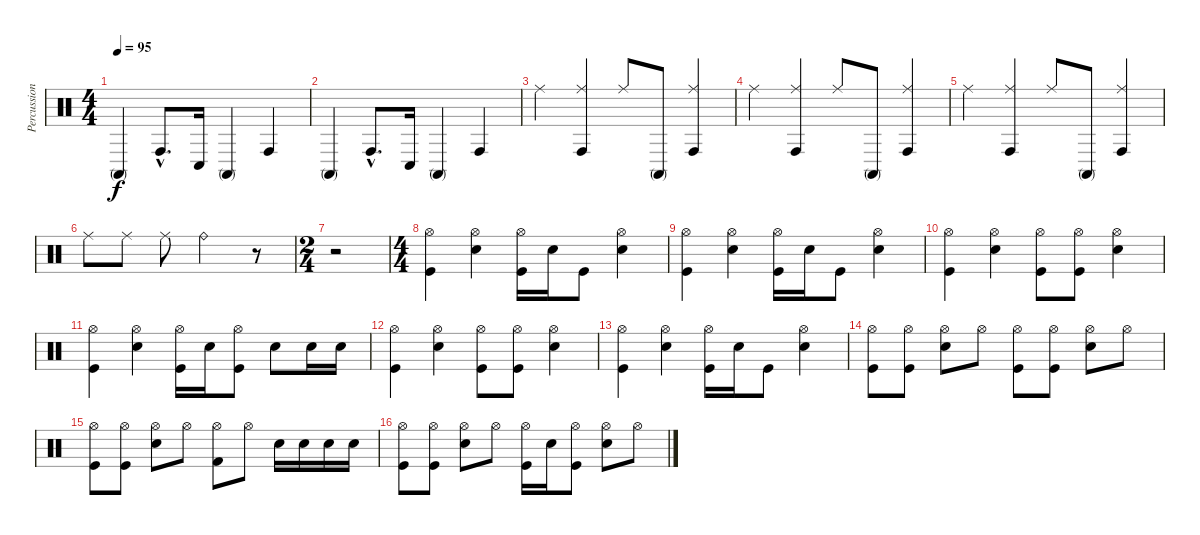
\track ("Percussion" "Percussion") {instrument percussion}
\staff {score}
\articulation defaults
\ts (4 4)
\tempo 95
\clef neutral
\ks c "Conga high (mute)".4{dy f} "Conga high (hit)"{hac}.8{d} "Conga low (hit)".16 "Conga high (mute)".4 "Conga high (hit)".4
|
"Conga high (mute)".4 "Conga high (hit)"{hac}.8{d} "Conga low (hit)".16 "Conga high (mute)".4 "Conga high (hit)".4 |
"Ride (middle)".4 ("Ride (middle)" "Conga high (hit)").4 "Ride (middle)".8 "Conga high (mute)".8 ("Ride (middle)" "Conga high (hit)").4 |
"Ride (middle)".4 ("Ride (middle)" "Conga high (hit)").4 "Ride (middle)".8 "Conga high (mute)".8 ("Ride (middle)" "Conga high (hit)").4 |
"Ride (middle)".4 ("Ride (middle)" "Conga high (hit)").4 "Ride (middle)".8 "Conga high (mute)".8 ("Ride (middle)" "Conga high (hit)").4 |
"Ride (middle)".8 "Ride (middle)".8 "Ride (middle)".8 "Ride (bell)".2 r.8 |
\ts (2 4)
r.2 |
\ts (4 4)
("Hi-Hat (open)" "Kick (hit)").4 ("Hi-Hat (open)" "Snare (hit) 2").4 ("Hi-Hat (open)" "Kick (hit)").16 "Snare (hit) 2".16 "Kick (hit)".8 ("Hi-Hat (open)" "Snare (hit) 2").4 |
("Hi-Hat (open)" "Kick (hit)").4 ("Hi-Hat (open)" "Snare (hit) 2").4 ("Hi-Hat (open)" "Kick (hit)").16 "Snare (hit) 2".16 "Kick (hit)".8 ("Hi-Hat (open)" "Snare (hit) 2").4 |
("Hi-Hat (open)" "Kick (hit)").4 ("Hi-Hat (open)" "Snare (hit) 2").4 ("Hi-Hat (open)" "Kick (hit)").8 ("Hi-Hat (open)" "Kick (hit)").8 ("Hi-Hat (open)" "Snare (hit) 2").4 |
("Hi-Hat (open)" "Kick (hit)").4 ("Hi-Hat (open)" "Snare (hit) 2").4 ("Hi-Hat (open)" "Kick (hit)").16 "Snare (hit) 2".16 ("Hi-Hat (open)" "Kick (hit)").8 "Snare (hit) 2".8 "Snare (hit) 2".16 "Snare (hit) 2".16 |
("Hi-Hat (open)" "Kick (hit)").4 ("Hi-Hat (open)" "Snare (hit) 2").4 ("Hi-Hat (open)" "Kick (hit)").8 ("Hi-Hat (open)" "Kick (hit)").8 ("Hi-Hat (open)" "Snare (hit) 2").4 |
("Hi-Hat (open)" "Kick (hit)").4 ("Hi-Hat (open)" "Snare (hit) 2").4 ("Hi-Hat (open)" "Kick (hit)").16 "Snare (hit) 2".16 "Kick (hit)".8 ("Hi-Hat (open)" "Snare (hit) 2").4 |
("Hi-Hat (open)" "Kick (hit)").8 ("Hi-Hat (open)" "Kick (hit)").8 ("Hi-Hat (open)" "Snare (hit) 2").8 "Hi-Hat (open)".8 ("Hi-Hat (open)" "Kick (hit)").8 ("Hi-Hat (open)" "Kick (hit)").8 ("Hi-Hat (open)" "Snare (hit) 2").8 "Hi-Hat (open)".8 |
("Hi-Hat (open)" "Kick (hit)").8 ("Hi-Hat (open)" "Kick (hit)").8 ("Hi-Hat (open)" "Snare (hit) 2").8 "Hi-Hat (open)".8 ("Hi-Hat (open)" "Kick (hit) 2").8 "Hi-Hat (open)".8 "Snare (hit) 2".16 "Snare (hit) 2".16 "Snare (hit) 2".16 "Snare (hit) 2".16 |
("Hi-Hat (open)" "Kick (hit)").8 ("Hi-Hat (open)" "Kick (hit)").8 ("Hi-Hat (open)" "Snare (hit) 2").8 "Hi-Hat (open)".8 ("Hi-Hat (open)" "Kick (hit)").16 "Snare (hit) 2".16 ("Hi-Hat (open)" "Kick (hit)").8 ("Hi-Hat (open)" "Snare (hit) 2").8 "Hi-Hat (open)".8
